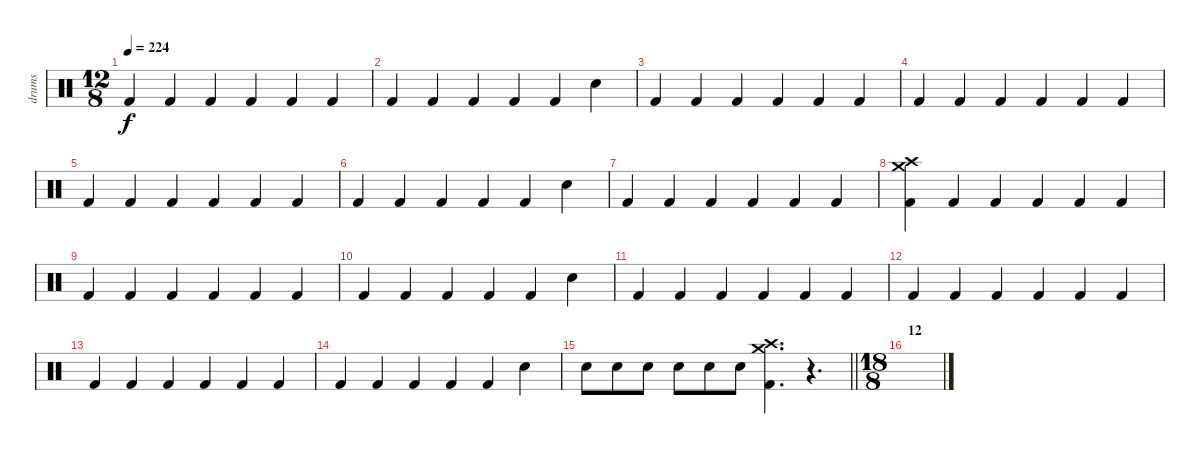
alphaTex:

\track ("drums" "drums") {instrument percussion}
\staff {score}
\articulation defaults
\ts (12 8)
\tempo 224
\clef neutral
\ks c "Kick (hit) 2".4{dy f} "Kick (hit) 2".4 "Kick (hit) 2".4 "Kick (hit) 2".4 "Kick (hit) 2".4 "Kick (hit) 2".4
|
"Kick (hit) 2".4 "Kick (hit) 2".4 "Kick (hit) 2".4 "Kick (hit) 2".4 "Kick (hit) 2".4 "Electric Snare (hit)".4 |
"Kick (hit) 2".4 "Kick (hit) 2".4 "Kick (hit) 2".4 "Kick (hit) 2".4 "Kick (hit) 2".4 "Kick (hit) 2".4 |
"Kick (hit) 2".4 "Kick (hit) 2".4 "Kick (hit) 2".4 "Kick (hit) 2".4 "Kick (hit) 2".4 "Kick (hit) 2".4 |
"Kick (hit) 2".4 "Kick (hit) 2".4 "Kick (hit) 2".4 "Kick (hit) 2".4 "Kick (hit) 2".4 "Kick (hit) 2".4 |
"Kick (hit) 2".4 "Kick (hit) 2".4 "Kick (hit) 2".4 "Kick (hit) 2".4 "Kick (hit) 2".4 "Electric Snare (hit)".4 |
"Kick (hit) 2".4 "Kick (hit) 2".4 "Kick (hit) 2".4 "Kick (hit) 2".4 "Kick (hit) 2".4 "Kick (hit) 2".4 |
("Kick (hit) 2" "Crash medium (hit)" "Crash high (hit)").4 "Kick (hit) 2".4 "Kick (hit) 2".4 "Kick (hit) 2".4 "Kick (hit) 2".4 "Kick (hit) 2".4 |
"Kick (hit) 2".4 "Kick (hit) 2".4 "Kick (hit) 2".4 "Kick (hit) 2".4 "Kick (hit) 2".4 "Kick (hit) 2".4 |
"Kick (hit) 2".4 "Kick (hit) 2".4 "Kick (hit) 2".4 "Kick (hit) 2".4 "Kick (hit) 2".4 "Electric Snare (hit)".4 |
"Kick (hit) 2".4 "Kick (hit) 2".4 "Kick (hit) 2".4 "Kick (hit) 2".4 "Kick (hit) 2".4 "Kick (hit) 2".4 |
"Kick (hit) 2".4 "Kick (hit) 2".4 "Kick (hit) 2".4 "Kick (hit) 2".4 "Kick (hit) 2".4 "Kick (hit) 2".4 |
"Kick (hit) 2".4 "Kick (hit) 2".4 "Kick (hit) 2".4 "Kick (hit) 2".4 "Kick (hit) 2".4 "Kick (hit) 2".4 |
"Kick (hit) 2".4 "Kick (hit) 2".4 "Kick (hit) 2".4 "Kick (hit) 2".4 "Kick (hit) 2".4 "Electric Snare (hit)".4 |
\barLineRight lightlight "Electric Snare (hit)".8 "Electric Snare (hit)".8 "Electric Snare (hit)".8 "Electric Snare (hit)".8 "Electric Snare (hit)".8 "Electric Snare (hit)".8
("Crash medium (hit)" "Crash high (hit)" "Kick (hit) 2").4{d} r.4{d} |
\ts (18 8)
\section ("" "12")
